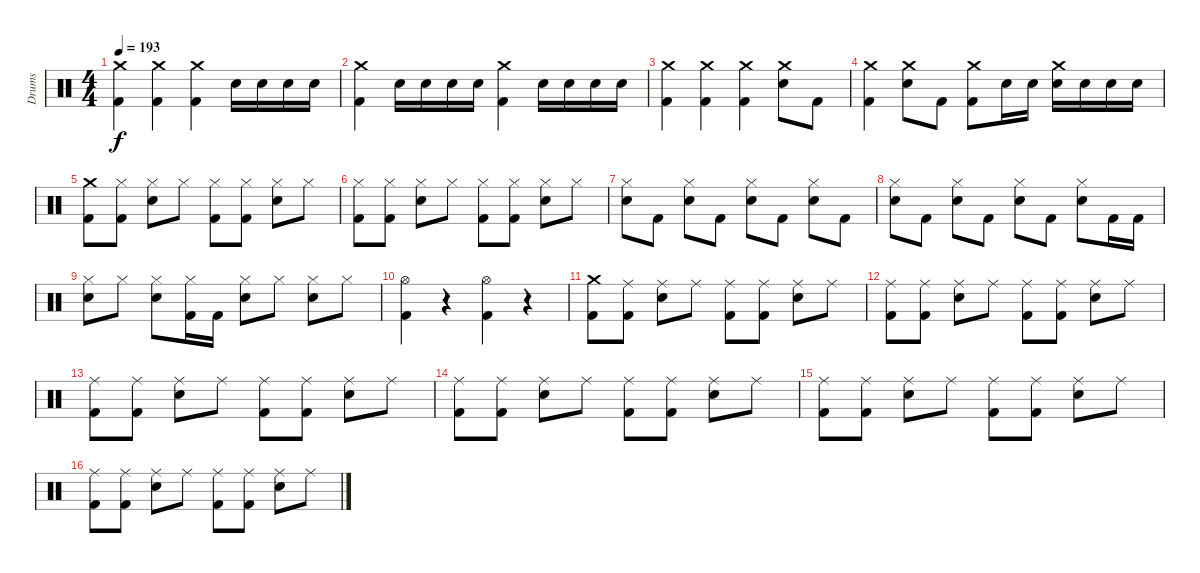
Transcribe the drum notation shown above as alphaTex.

\track ("Drums" "Drums") {instrument percussion}
\staff {score}
\articulation defaults
\ts (4 4)
\tempo 193
\clef neutral
\ks c
("Crash medium (hit)" "Kick (hit) 2").4{dy f} ("Crash medium (hit)" "Kick (hit) 2").4 ("Crash medium (hit)" "Kick (hit) 2").4 "Snare (hit) 2".16 "Snare (hit) 2".16 "Snare (hit) 2".16 "Snare (hit) 2".16 |
("Crash medium (hit)" "Kick (hit) 2").4 "Snare (hit) 2".16 "Snare (hit) 2".16 "Snare (hit) 2".16 "Snare (hit) 2".16 ("Crash medium (hit)" "Kick (hit) 2").4 "Snare (hit) 2".16 "Snare (hit) 2".16 "Snare (hit) 2".16 "Snare (hit) 2".16 |
("Crash medium (hit)" "Kick (hit) 2").4 ("Crash medium (hit)" "Kick (hit) 2").4 ("Crash medium (hit)" "Kick (hit) 2").4 ("Crash medium (hit)" "Snare (hit) 2").8 "Kick (hit) 2".8 |
("Crash medium (hit)" "Kick (hit) 2").4 ("Crash medium (hit)" "Snare (hit) 2").8 "Kick (hit) 2".8 ("Crash medium (hit)" "Kick (hit) 2").8 "Snare (hit) 2".16 "Snare (hit) 2".16 ("Crash medium (hit)" "Snare (hit) 2").16 "Snare (hit) 2".16 "Snare (hit) 2".16 "Snare (hit) 2".16 |
("Crash medium (hit)" "Kick (hit) 2").8 ("Hi-Hat (closed)" "Kick (hit) 2").8 ("Hi-Hat (closed)" "Snare (hit) 2").8 "Hi-Hat (closed)".8 ("Hi-Hat (closed)" "Kick (hit) 2").8 ("Hi-Hat (closed)" "Kick (hit) 2").8 ("Hi-Hat (closed)" "Snare (hit) 2").8 "Hi-Hat (closed)".8 |
("Hi-Hat (closed)" "Kick (hit) 2").8 ("Hi-Hat (closed)" "Kick (hit) 2").8 ("Hi-Hat (closed)" "Snare (hit) 2").8 "Hi-Hat (closed)".8 ("Hi-Hat (closed)" "Kick (hit) 2").8 ("Hi-Hat (closed)" "Kick (hit) 2").8 ("Hi-Hat (closed)" "Snare (hit) 2").8 "Hi-Hat (closed)".8 |
("Hi-Hat (closed)" "Snare (hit) 2").8 "Kick (hit) 2".8 ("Hi-Hat (closed)" "Snare (hit) 2").8 "Kick (hit) 2".8 ("Hi-Hat (closed)" "Snare (hit) 2").8 "Kick (hit) 2".8 ("Hi-Hat (closed)" "Snare (hit) 2").8 "Kick (hit) 2".8 |
("Hi-Hat (closed)" "Snare (hit) 2").8 "Kick (hit) 2".8 ("Hi-Hat (closed)" "Snare (hit) 2").8 "Kick (hit) 2".8 ("Hi-Hat (closed)" "Snare (hit) 2").8 "Kick (hit) 2".8 ("Hi-Hat (closed)" "Snare (hit) 2").8 "Kick (hit) 2".16 "Kick (hit) 2".16 |
("Hi-Hat (closed)" "Snare (hit) 2").8 "Hi-Hat (closed)".8 ("Hi-Hat (closed)" "Snare (hit) 2").8 ("Hi-Hat (closed)" "Kick (hit) 2").16 "Kick (hit) 2".16 ("Hi-Hat (closed)" "Snare (hit) 2").8 "Hi-Hat (closed)".8 ("Hi-Hat (closed)" "Snare (hit) 2").8 "Hi-Hat (closed)".8 |
("Hi-Hat (open)" "Kick (hit) 2").4 r.4 ("Hi-Hat (open)" "Kick (hit) 2").4 r.4 |
("Crash medium (hit)" "Kick (hit) 2").8 ("Ride (middle)" "Kick (hit) 2").8 ("Ride (middle)" "Snare (hit) 2").8 "Ride (middle)".8 ("Ride (middle)" "Kick (hit) 2").8 ("Ride (middle)" "Kick (hit) 2").8 ("Ride (middle)" "Snare (hit) 2").8 "Ride (middle)".8 |
("Ride (middle)" "Kick (hit) 2").8 ("Ride (middle)" "Kick (hit) 2").8 ("Ride (middle)" "Snare (hit) 2").8 "Ride (middle)".8 ("Ride (middle)" "Kick (hit) 2").8 ("Ride (middle)" "Kick (hit) 2").8 ("Ride (middle)" "Snare (hit) 2").8 "Ride (middle)".8 |
("Ride (middle)" "Kick (hit) 2").8 ("Ride (middle)" "Kick (hit) 2").8 ("Ride (middle)" "Snare (hit) 2").8 "Ride (middle)".8 ("Ride (middle)" "Kick (hit) 2").8 ("Ride (middle)" "Kick (hit) 2").8 ("Ride (middle)" "Snare (hit) 2").8 "Ride (middle)".8 |
("Ride (middle)" "Kick (hit) 2").8 ("Ride (middle)" "Kick (hit) 2").8 ("Ride (middle)" "Snare (hit) 2").8 "Ride (middle)".8 ("Ride (middle)" "Kick (hit) 2").8 ("Ride (middle)" "Kick (hit) 2").8 ("Ride (middle)" "Snare (hit) 2").8 "Ride (middle)".8 |
("Ride (middle)" "Kick (hit) 2").8 ("Ride (middle)" "Kick (hit) 2").8 ("Ride (middle)" "Snare (hit) 2").8 "Ride (middle)".8 ("Ride (middle)" "Kick (hit) 2").8 ("Ride (middle)" "Kick (hit) 2").8 ("Ride (middle)" "Snare (hit) 2").8 "Ride (middle)".8 |
("Ride (middle)" "Kick (hit) 2").8 ("Ride (middle)" "Kick (hit) 2").8 ("Ride (middle)" "Snare (hit) 2").8 "Ride (middle)".8 ("Ride (middle)" "Kick (hit) 2").8 ("Ride (middle)" "Kick (hit) 2").8 ("Ride (middle)" "Snare (hit) 2").8 "Ride (middle)".8
